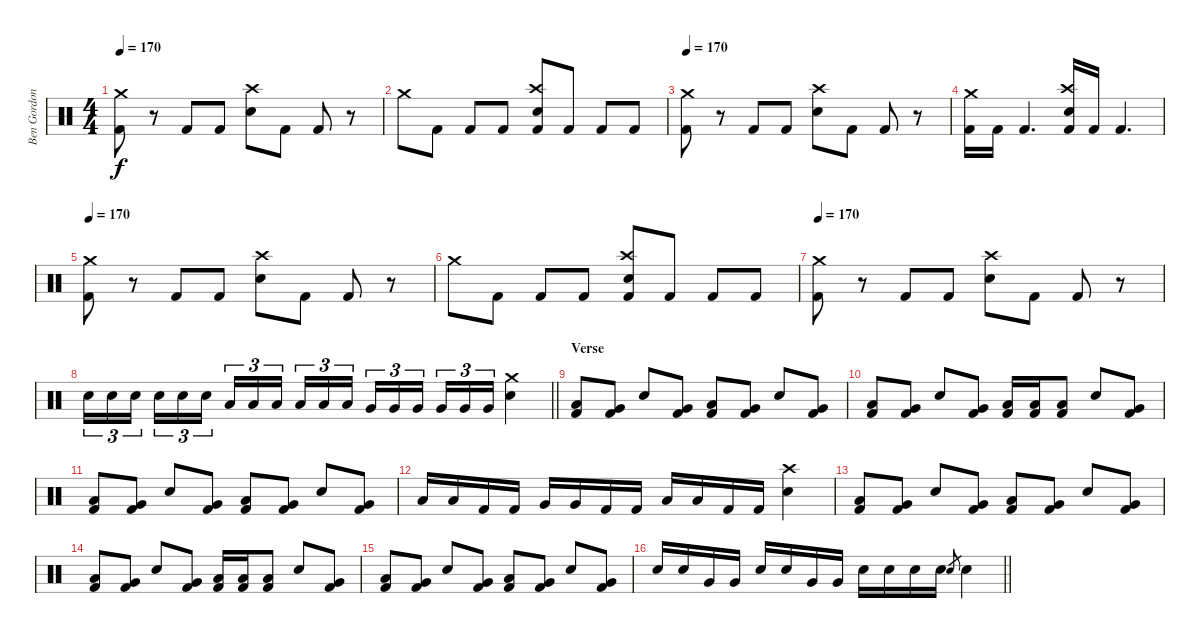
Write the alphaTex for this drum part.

\track ("Ben Gordon" "Ben Gordon") {instrument percussion}
\staff {score}
\articulation defaults
\ts (4 4)
\tempo 170
\clef neutral
\ks c
("Crash medium (hit)" "Kick (hit) 2").8{dy f} r.8 "Kick (hit) 2".8 "Kick (hit) 2".8 ("Crash high (hit)" "Electric Snare (hit)").8 "Kick (hit) 2".8 "Kick (hit) 2".8 r.8 |
"Crash medium (hit)".8 "Kick (hit) 2".8 "Kick (hit) 2".8 "Kick (hit) 2".8 ("Crash high (hit)" "Electric Snare (hit)" "Kick (hit) 2").8 "Kick (hit) 2".8 "Kick (hit) 2".8 "Kick (hit) 2".8 |
\tempo 170
("Crash medium (hit)" "Kick (hit) 2").8 r.8 "Kick (hit) 2".8 "Kick (hit) 2".8 ("Crash high (hit)" "Electric Snare (hit)").8 "Kick (hit) 2".8 "Kick (hit) 2".8 r.8 |
("Crash medium (hit)" "Kick (hit) 2").16 "Kick (hit) 2".16 "Kick (hit) 2".4{d} ("Crash high (hit)" "Electric Snare (hit)" "Kick (hit) 2").16 "Kick (hit) 2".16 "Kick (hit) 2".4{d} |
\tempo 170
("Crash medium (hit)" "Kick (hit) 2").8 r.8 "Kick (hit) 2".8 "Kick (hit) 2".8 ("Crash high (hit)" "Electric Snare (hit)").8 "Kick (hit) 2".8 "Kick (hit) 2".8 r.8 |
"Crash medium (hit)".8 "Kick (hit) 2".8 "Kick (hit) 2".8 "Kick (hit) 2".8 ("Crash high (hit)" "Electric Snare (hit)" "Kick (hit) 2").8 "Kick (hit) 2".8 "Kick (hit) 2".8 "Kick (hit) 2".8 |
\tempo 170
("Crash medium (hit)" "Kick (hit) 2").8 r.8 "Kick (hit) 2".8 "Kick (hit) 2".8 ("Crash high (hit)" "Electric Snare (hit)").8 "Kick (hit) 2".8 "Kick (hit) 2".8 r.8 |
\barLineRight lightlight "Electric Snare (hit)".16{tu (3 2)} "Electric Snare (hit)".16{tu (3 2)} "Electric Snare (hit)".16{tu (3 2)} "Electric Snare (hit)".16{tu (3 2)} "Electric Snare (hit)".16{tu (3 2)} "Electric Snare (hit)".16{tu (3 2)} "Low Tom (hit)".16{tu (3 2)} "Low Tom (hit)".16{tu (3 2)} "Low Tom (hit)".16{tu (3 2)} "Low Tom (hit)".16{tu (3 2)} "Low Tom (hit)".16{tu (3 2)} "Low Tom (hit)".16{tu (3 2)} "Very Low Tom (hit)".16{tu (3 2)} "Very Low Tom (hit)".16{tu (3 2)} "Very Low Tom (hit)".16{tu (3 2)} "Very Low Tom (hit)".16{tu (3 2)} "Very Low Tom (hit)".16{tu (3 2)} "Very Low Tom (hit)".16{tu (3 2)}
("Crash medium (hit)" "Electric Snare (hit)").4 |
\section ("" "Verse")
("Low Tom (hit)" "Kick (hit) 2").8 ("Very Low Tom (hit)" "Kick (hit) 2").8 "Electric Snare (hit)".8 ("Very Low Tom (hit)" "Kick (hit) 2").8 ("Low Tom (hit)" "Kick (hit) 2").8 ("Very Low Tom (hit)" "Kick (hit) 2").8 "Electric Snare (hit)".8 ("Very Low Tom (hit)" "Kick (hit) 2").8 |
("Low Tom (hit)" "Kick (hit) 2").8 ("Very Low Tom (hit)" "Kick (hit) 2").8 "Electric Snare (hit)".8 ("Very Low Tom (hit)" "Kick (hit) 2").8 ("Low Tom (hit)" "Kick (hit) 2").16 ("Low Tom (hit)" "Kick (hit) 2").16 ("Low Tom (hit)" "Kick (hit) 2").8 "Electric Snare (hit)".8 ("Very Low Tom (hit)" "Kick (hit) 2").8 |
("Low Tom (hit)" "Kick (hit) 2").8 ("Very Low Tom (hit)" "Kick (hit) 2").8 "Electric Snare (hit)".8 ("Very Low Tom (hit)" "Kick (hit) 2").8 ("Low Tom (hit)" "Kick (hit) 2").8 ("Very Low Tom (hit)" "Kick (hit) 2").8 "Electric Snare (hit)".8 ("Very Low Tom (hit)" "Kick (hit) 2").8 |
"Low Tom (hit)".16 "Low Tom (hit)".16 "Kick (hit) 2".16 "Kick (hit) 2".16 "Very Low Tom (hit)".16 "Very Low Tom (hit)".16 "Kick (hit) 2".16 "Kick (hit) 2".16 "Low Floor Tom (hit)".16 "Low Floor Tom (hit)".16 "Kick (hit) 2".16 "Kick (hit) 2".16 ("Crash high (hit)" "Electric Snare (hit)").4 |
("Low Tom (hit)" "Kick (hit) 2").8 ("Very Low Tom (hit)" "Kick (hit) 2").8 "Electric Snare (hit)".8 ("Very Low Tom (hit)" "Kick (hit) 2").8 ("Low Tom (hit)" "Kick (hit) 2").8 ("Very Low Tom (hit)" "Kick (hit) 2").8 "Electric Snare (hit)".8 ("Very Low Tom (hit)" "Kick (hit) 2").8 |
("Low Tom (hit)" "Kick (hit) 2").8 ("Very Low Tom (hit)" "Kick (hit) 2").8 "Electric Snare (hit)".8 ("Very Low Tom (hit)" "Kick (hit) 2").8 ("Low Tom (hit)" "Kick (hit) 2").16 ("Low Tom (hit)" "Kick (hit) 2").16 ("Low Tom (hit)" "Kick (hit) 2").8 "Electric Snare (hit)".8 ("Very Low Tom (hit)" "Kick (hit) 2").8 |
("Low Tom (hit)" "Kick (hit) 2").8 ("Very Low Tom (hit)" "Kick (hit) 2").8 "Electric Snare (hit)".8 ("Very Low Tom (hit)" "Kick (hit) 2").8 ("Low Tom (hit)" "Kick (hit) 2").8 ("Very Low Tom (hit)" "Kick (hit) 2").8 "Electric Snare (hit)".8 ("Very Low Tom (hit)" "Kick (hit) 2").8 |
\barLineRight lightlight "Electric Snare (hit)".16 "Electric Snare (hit)".16 "Very Low Tom (hit)".16 "Very Low Tom (hit)".16 "Electric Snare (hit)".16 "Electric Snare (hit)".16 "Very Low Tom (hit)".16 "Very Low Tom (hit)".16 "Electric Snare (hit)".16 "Electric Snare (hit)".16 "Electric Snare (hit)".16 "Electric Snare (hit)".16 "Electric Snare (hit)".8{gr} "Electric Snare (hit)".4
